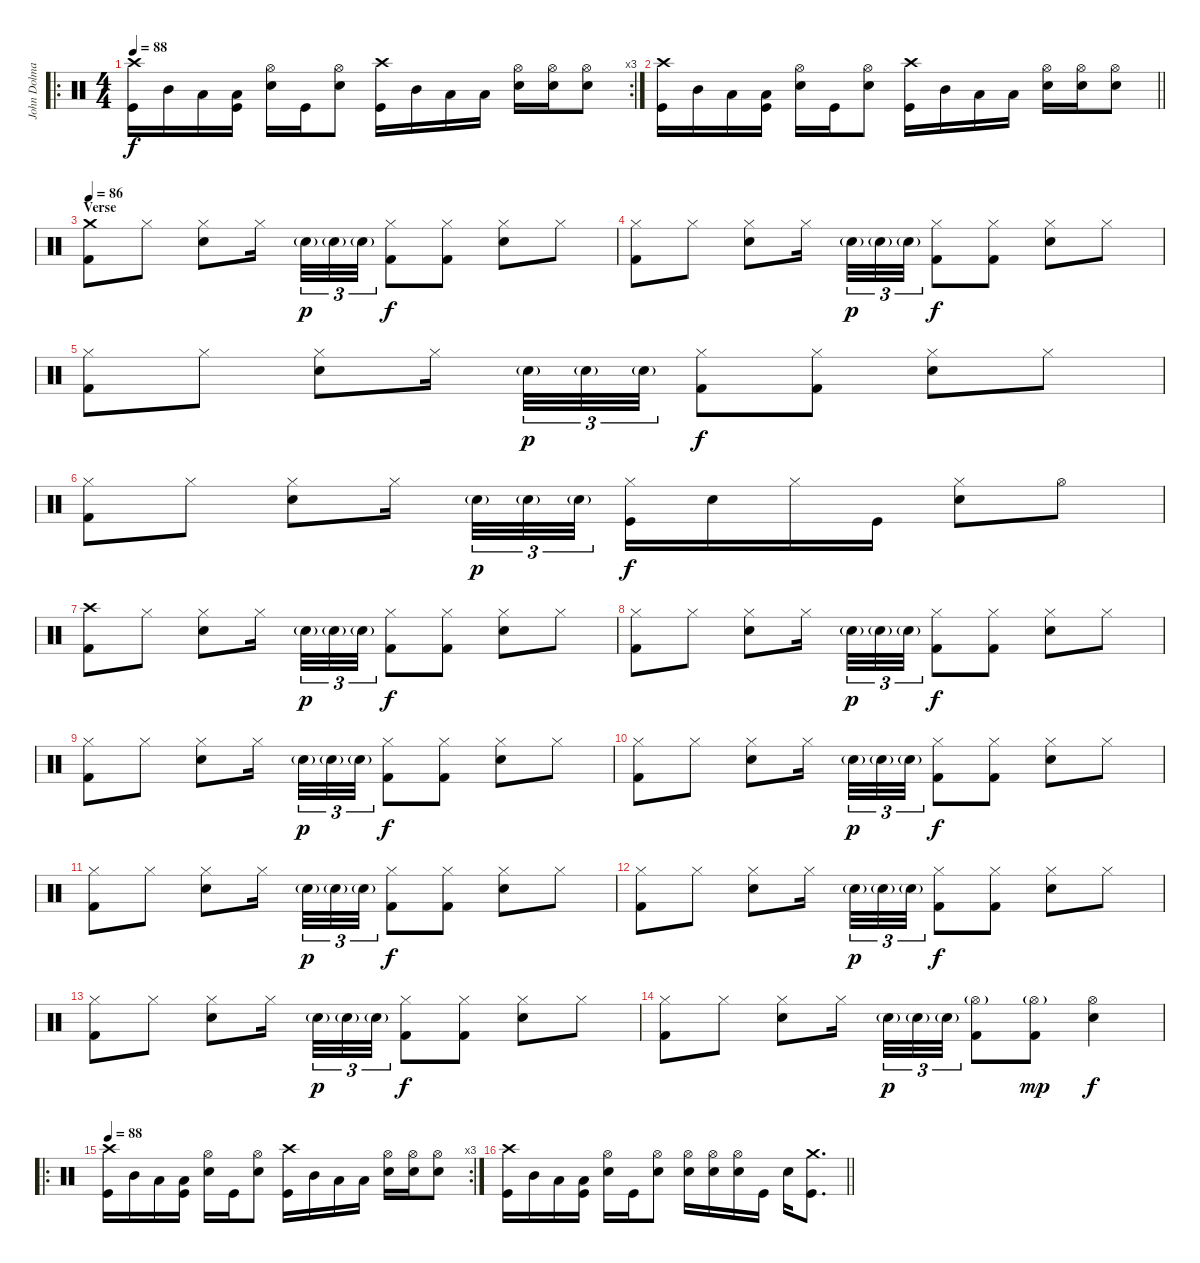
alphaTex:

\track ("John Dolmayan" "John Dolma") {instrument percussion}
\staff {score}
\articulation defaults
\ro
\rc 3
\ts (4 4)
\tempo 88
\clef neutral
\ks c
("Crash high (hit)" "Kick (hit)").16{dy f} "Mid Tom (hit)".16 "Low Tom (hit)".16 ("Low Floor Tom (hit)" "Kick (hit)").16 ("Hi-Hat (open)" "Snare (hit) 2").16 "Kick (hit)".16 ("Hi-Hat (open)" "Snare (hit) 2").8 ("Crash high (hit)" "Kick (hit)").16 "Mid Tom (hit)".16 "Low Tom (hit)".16 "Low Floor Tom (hit)".16 ("Hi-Hat (open)" "Snare (hit) 2").16 ("Hi-Hat (open)" "Snare (hit) 2").16 ("Hi-Hat (open)" "Snare (hit) 2").8 |
\barLineRight lightlight
("Crash high (hit)" "Kick (hit)").16 "Mid Tom (hit)".16 "Low Tom (hit)".16 ("Low Floor Tom (hit)" "Kick (hit)").16 ("Hi-Hat (open)" "Snare (hit) 2").16 "Kick (hit)".16 ("Hi-Hat (open)" "Snare (hit) 2").8 ("Crash high (hit)" "Kick (hit)").16 "Mid Tom (hit)".16 "Low Tom (hit)".16 "Low Floor Tom (hit)".16 ("Hi-Hat (open)" "Snare (hit) 2").16 ("Hi-Hat (open)" "Snare (hit) 2").16 ("Hi-Hat (open)" "Snare (hit) 2").8 |
\section ("" "Verse")
\tempo 86
("Crash medium (hit)" "Kick (hit) 2").8 "Hi-Hat (closed)".8 ("Hi-Hat (closed)" "Snare (hit) 2").8 "Hi-Hat (closed)".16{beam splitsecondary} "Snare (hit) 2"{g}.32{tu (3 2) dy p} "Snare (hit) 2"{g}.32{tu (3 2)} "Snare (hit) 2"{g}.32{tu (3 2)} ("Hi-Hat (closed)" "Kick (hit) 2").8{dy f} ("Hi-Hat (closed)" "Kick (hit) 2").8 ("Hi-Hat (closed)" "Snare (hit) 2").8 "Hi-Hat (closed)".8 |
("Hi-Hat (closed)" "Kick (hit) 2").8 "Hi-Hat (closed)".8 ("Hi-Hat (closed)" "Snare (hit) 2").8 "Hi-Hat (closed)".16{beam splitsecondary} "Snare (hit) 2"{g}.32{tu (3 2) dy p} "Snare (hit) 2"{g}.32{tu (3 2)} "Snare (hit) 2"{g}.32{tu (3 2)} ("Hi-Hat (closed)" "Kick (hit) 2").8{dy f} ("Hi-Hat (closed)" "Kick (hit) 2").8 ("Hi-Hat (closed)" "Snare (hit) 2").8 "Hi-Hat (closed)".8 |
("Hi-Hat (closed)" "Kick (hit) 2").8 "Hi-Hat (closed)".8 ("Hi-Hat (closed)" "Snare (hit) 2").8 "Hi-Hat (closed)".16{beam splitsecondary} "Snare (hit) 2"{g}.32{tu (3 2) dy p} "Snare (hit) 2"{g}.32{tu (3 2)} "Snare (hit) 2"{g}.32{tu (3 2)} ("Hi-Hat (closed)" "Kick (hit) 2").8{dy f} ("Hi-Hat (closed)" "Kick (hit) 2").8 ("Hi-Hat (closed)" "Snare (hit) 2").8 "Hi-Hat (closed)".8 |
("Hi-Hat (closed)" "Kick (hit) 2").8 "Hi-Hat (closed)".8 ("Hi-Hat (closed)" "Snare (hit) 2").8 "Hi-Hat (closed)".16{beam splitsecondary} "Snare (hit) 2"{g}.32{tu (3 2) dy p} "Snare (hit) 2"{g}.32{tu (3 2)} "Snare (hit) 2"{g}.32{tu (3 2)} ("Hi-Hat (closed)" "Kick (hit)").16{dy f} "Snare (hit) 2".16 "Hi-Hat (closed)".16 "Kick (hit)".16 ("Hi-Hat (closed)" "Snare (hit) 2").8 "Hi-Hat (open)".8 |
("Crash high (hit)" "Kick (hit) 2").8 "Hi-Hat (closed)".8 ("Hi-Hat (closed)" "Snare (hit) 2").8 "Hi-Hat (closed)".16{beam splitsecondary} "Snare (hit) 2"{g}.32{tu (3 2) dy p} "Snare (hit) 2"{g}.32{tu (3 2)} "Snare (hit) 2"{g}.32{tu (3 2)} ("Hi-Hat (closed)" "Kick (hit) 2").8{dy f} ("Hi-Hat (closed)" "Kick (hit) 2").8 ("Hi-Hat (closed)" "Snare (hit) 2").8 "Hi-Hat (closed)".8 |
("Hi-Hat (closed)" "Kick (hit) 2").8 "Hi-Hat (closed)".8 ("Hi-Hat (closed)" "Snare (hit) 2").8 "Hi-Hat (closed)".16{beam splitsecondary} "Snare (hit) 2"{g}.32{tu (3 2) dy p} "Snare (hit) 2"{g}.32{tu (3 2)} "Snare (hit) 2"{g}.32{tu (3 2)} ("Hi-Hat (closed)" "Kick (hit) 2").8{dy f} ("Hi-Hat (closed)" "Kick (hit) 2").8 ("Hi-Hat (closed)" "Snare (hit) 2").8 "Hi-Hat (closed)".8 |
("Hi-Hat (closed)" "Kick (hit) 2").8 "Hi-Hat (closed)".8 ("Hi-Hat (closed)" "Snare (hit) 2").8 "Hi-Hat (closed)".16{beam splitsecondary} "Snare (hit) 2"{g}.32{tu (3 2) dy p} "Snare (hit) 2"{g}.32{tu (3 2)} "Snare (hit) 2"{g}.32{tu (3 2)} ("Hi-Hat (closed)" "Kick (hit) 2").8{dy f} ("Hi-Hat (closed)" "Kick (hit) 2").8 ("Hi-Hat (closed)" "Snare (hit) 2").8 "Hi-Hat (closed)".8 |
("Hi-Hat (closed)" "Kick (hit) 2").8 "Hi-Hat (closed)".8 ("Hi-Hat (closed)" "Snare (hit) 2").8 "Hi-Hat (closed)".16{beam splitsecondary} "Snare (hit) 2"{g}.32{tu (3 2) dy p} "Snare (hit) 2"{g}.32{tu (3 2)} "Snare (hit) 2"{g}.32{tu (3 2)} ("Hi-Hat (closed)" "Kick (hit) 2").8{dy f} ("Hi-Hat (closed)" "Kick (hit) 2").8 ("Hi-Hat (closed)" "Snare (hit) 2").8 "Hi-Hat (closed)".8 |
("Hi-Hat (closed)" "Kick (hit) 2").8 "Hi-Hat (closed)".8 ("Hi-Hat (closed)" "Snare (hit) 2").8 "Hi-Hat (closed)".16{beam splitsecondary} "Snare (hit) 2"{g}.32{tu (3 2) dy p} "Snare (hit) 2"{g}.32{tu (3 2)} "Snare (hit) 2"{g}.32{tu (3 2)} ("Hi-Hat (closed)" "Kick (hit) 2").8{dy f} ("Hi-Hat (closed)" "Kick (hit) 2").8 ("Hi-Hat (closed)" "Snare (hit) 2").8 "Hi-Hat (closed)".8 |
("Hi-Hat (closed)" "Kick (hit) 2").8 "Hi-Hat (closed)".8 ("Hi-Hat (closed)" "Snare (hit) 2").8 "Hi-Hat (closed)".16{beam splitsecondary} "Snare (hit) 2"{g}.32{tu (3 2) dy p} "Snare (hit) 2"{g}.32{tu (3 2)} "Snare (hit) 2"{g}.32{tu (3 2)} ("Hi-Hat (closed)" "Kick (hit) 2").8{dy f} ("Hi-Hat (closed)" "Kick (hit) 2").8 ("Hi-Hat (closed)" "Snare (hit) 2").8 "Hi-Hat (closed)".8 |
("Hi-Hat (closed)" "Kick (hit) 2").8 "Hi-Hat (closed)".8 ("Hi-Hat (closed)" "Snare (hit) 2").8 "Hi-Hat (closed)".16{beam splitsecondary} "Snare (hit) 2"{g}.32{tu (3 2) dy p} "Snare (hit) 2"{g}.32{tu (3 2)} "Snare (hit) 2"{g}.32{tu (3 2)} ("Hi-Hat (closed)" "Kick (hit) 2").8{dy f} ("Hi-Hat (closed)" "Kick (hit) 2").8 ("Hi-Hat (closed)" "Snare (hit) 2").8 "Hi-Hat (closed)".8 |
("Hi-Hat (closed)" "Kick (hit) 2").8 "Hi-Hat (closed)".8 ("Hi-Hat (closed)" "Snare (hit) 2").8 "Hi-Hat (closed)".16{beam splitsecondary} "Snare (hit) 2"{g}.32{tu (3 2) dy p} "Snare (hit) 2"{g}.32{tu (3 2)} "Snare (hit) 2"{g}.32{tu (3 2)} ("Hi-Hat (open)"{g} "Kick (hit) 2").8 ("Hi-Hat (open)"{g} "Kick (hit) 2").8{dy mp} ("Hi-Hat (open)" "Snare (hit) 2").4{dy f} |
\ro
\rc 3
\tempo 88
("Crash high (hit)" "Kick (hit)").16 "Mid Tom (hit)".16 "Low Tom (hit)".16 ("Low Floor Tom (hit)" "Kick (hit)").16 ("Hi-Hat (open)" "Snare (hit) 2").16 "Kick (hit)".16 ("Hi-Hat (open)" "Snare (hit) 2").8 ("Crash high (hit)" "Kick (hit)").16 "Mid Tom (hit)".16 "Low Tom (hit)".16 "Low Floor Tom (hit)".16 ("Hi-Hat (open)" "Snare (hit) 2").16 ("Hi-Hat (open)" "Snare (hit) 2").16 ("Hi-Hat (open)" "Snare (hit) 2").8 |
\barLineRight lightlight
("Crash high (hit)" "Kick (hit)").16 "Mid Tom (hit)".16 "Low Tom (hit)".16 ("Low Floor Tom (hit)" "Kick (hit)").16 ("Hi-Hat (open)" "Snare (hit) 2").16 "Kick (hit)".16 ("Hi-Hat (open)" "Snare (hit) 2").8 ("Hi-Hat (open)" "Snare (hit) 2").16 ("Hi-Hat (open)" "Snare (hit) 2").16 ("Hi-Hat (open)" "Snare (hit) 2").16 "Kick (hit)".16 "Snare (hit) 2".16 ("Crash medium (hit)" "Kick (hit)").8{d}
